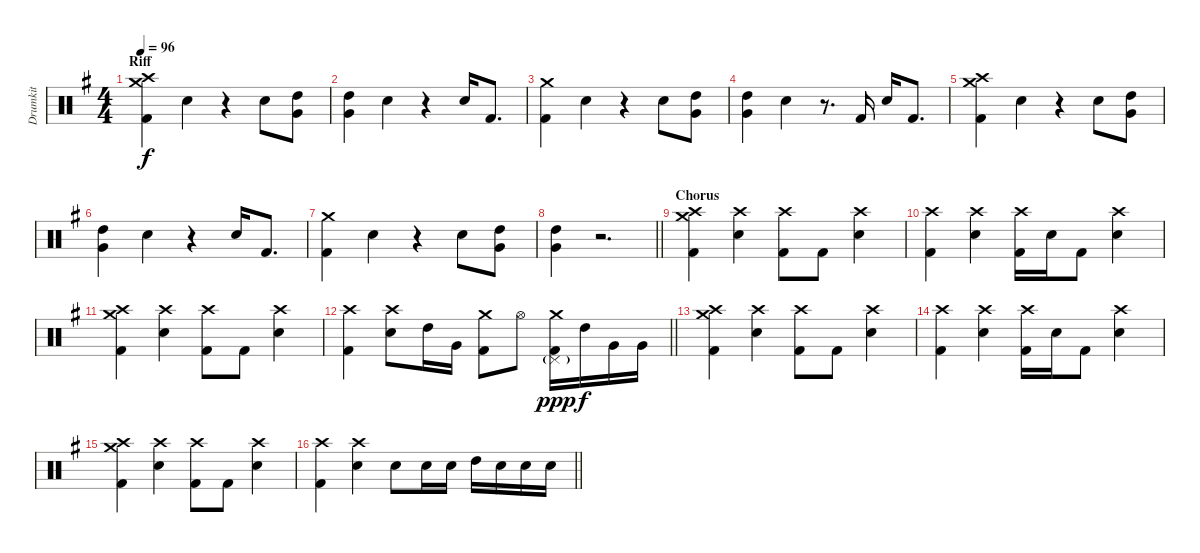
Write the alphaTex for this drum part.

\track ("Drumkit" "Drumkit") {instrument percussion}
\staff {score}
\articulation defaults
\ts (4 4)
\section ("" "Riff")
\tempo 96
\clef neutral
\ks eminor
("Crash medium (hit)" "Crash high (hit)" "Kick (hit) 2").4{dy f} "Electric Snare (hit)".4 r.4 "Electric Snare (hit)".8 ("Very Low Tom (hit)" "High Tom (hit)").8 |
("Very Low Tom (hit)" "High Tom (hit)").4 "Electric Snare (hit)".4 r.4 "Electric Snare (hit)".16 "Kick (hit) 2".8{d} |
("Crash medium (hit)" "Kick (hit) 2").4 "Electric Snare (hit)".4 r.4 "Electric Snare (hit)".8 ("Very Low Tom (hit)" "High Tom (hit)").8 |
("Very Low Tom (hit)" "High Tom (hit)").4 "Electric Snare (hit)".4 r.8{d} "Kick (hit) 2".16 "Electric Snare (hit)".16 "Kick (hit) 2".8{d} |
("Crash medium (hit)" "Crash high (hit)" "Kick (hit) 2").4 "Electric Snare (hit)".4 r.4 "Electric Snare (hit)".8 ("Very Low Tom (hit)" "High Tom (hit)").8 |
("Very Low Tom (hit)" "High Tom (hit)").4 "Electric Snare (hit)".4 r.4 "Electric Snare (hit)".16 "Kick (hit) 2".8{d} |
("Crash medium (hit)" "Kick (hit) 2").4 "Electric Snare (hit)".4 r.4 "Electric Snare (hit)".8 ("Very Low Tom (hit)" "High Tom (hit)").8 |
\barLineRight lightlight
("Very Low Tom (hit)" "High Tom (hit)").4 r.2{d} |
\section ("" "Chorus")
("Crash high (hit)" "Crash medium (hit)" "Kick (hit) 2").4 ("Crash high (hit)" "Electric Snare (hit)").4 ("Crash high (hit)" "Kick (hit) 2").8 "Kick (hit) 2".8 ("Crash high (hit)" "Electric Snare (hit)").4 |
("Crash high (hit)" "Kick (hit) 2").4 ("Crash high (hit)" "Electric Snare (hit)").4 ("Crash high (hit)" "Kick (hit) 2").16 "Electric Snare (hit)".16 "Kick (hit) 2".8 ("Crash high (hit)" "Electric Snare (hit)").4 |
("Crash high (hit)" "Crash medium (hit)" "Kick (hit) 2").4 ("Crash high (hit)" "Electric Snare (hit)").4 ("Crash high (hit)" "Kick (hit) 2").8 "Kick (hit) 2".8 ("Crash high (hit)" "Electric Snare (hit)").4 |
\barLineRight lightlight
("Crash high (hit)" "Kick (hit) 2").4 ("Crash high (hit)" "Electric Snare (hit)").8 "High Tom (hit)".16 "Very Low Tom (hit)".16 ("Crash medium (hit)" "Kick (hit) 2").8 "Hi-Hat (open)".8 ("Crash medium (hit)" "Pedal Hi-Hat (hit)"{g} "Kick (hit) 2").16{dy ppp} "High Tom (hit)".16{dy f} "Very Low Tom (hit)".16 "Very Low Tom (hit)".16 |
("Crash high (hit)" "Crash medium (hit)" "Kick (hit) 2").4 ("Crash high (hit)" "Electric Snare (hit)").4 ("Crash high (hit)" "Kick (hit) 2").8 "Kick (hit) 2".8 ("Crash high (hit)" "Electric Snare (hit)").4 |
("Crash high (hit)" "Kick (hit) 2").4 ("Crash high (hit)" "Electric Snare (hit)").4 ("Crash high (hit)" "Kick (hit) 2").16 "Electric Snare (hit)".16 "Kick (hit) 2".8 ("Crash high (hit)" "Electric Snare (hit)").4 |
("Crash high (hit)" "Crash medium (hit)" "Kick (hit) 2").4 ("Crash high (hit)" "Electric Snare (hit)").4 ("Crash high (hit)" "Kick (hit) 2").8 "Kick (hit) 2".8 ("Crash high (hit)" "Electric Snare (hit)").4 |
\barLineRight lightlight
("Crash high (hit)" "Kick (hit) 2").4 ("Crash high (hit)" "Electric Snare (hit)").4 "Electric Snare (hit)".8 "Electric Snare (hit)".16 "Electric Snare (hit)".16 "High Tom (hit)".16 "Electric Snare (hit)".16 "Electric Snare (hit)".16 "Electric Snare (hit)".16
